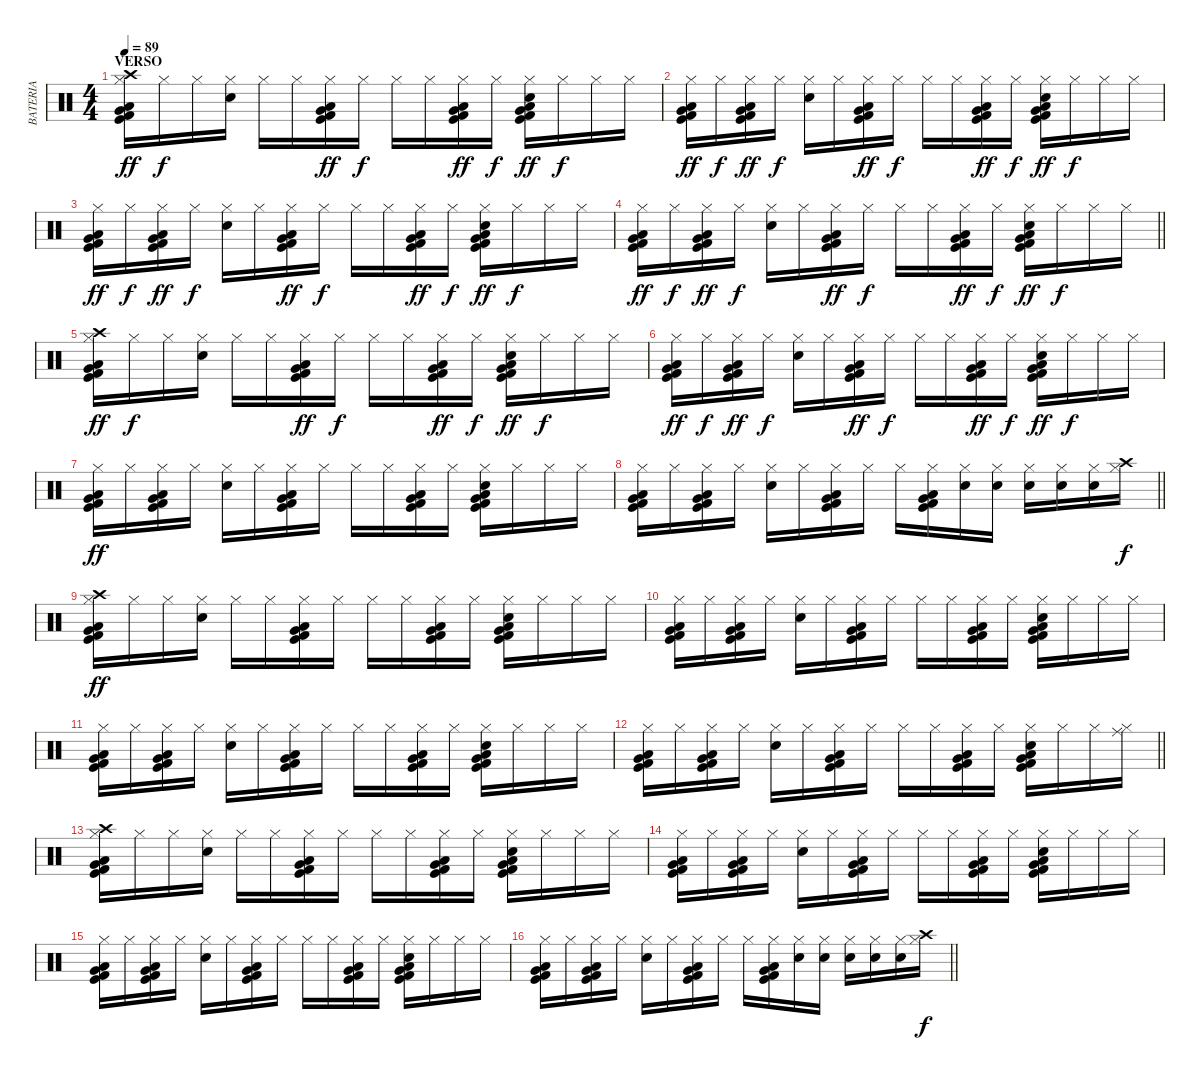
\track ("BATERIA" "BATERIA") {instrument percussion}
\staff {score}
\articulation defaults
\ts (4 4)
\section ("" "VERSO")
\tempo 89
\clef neutral
\ks c
("Hi-Hat (closed)" "Crash high (hit)" "Very Low Tom (hit)" "Kick (hit)" "Kick (hit) 2" "Low Floor Tom (hit)").16{dy ff} "Hi-Hat (closed)".16{dy f} "Hi-Hat (closed)".16 ("Hi-Hat (closed)" "Snare (hit) 2").16 "Hi-Hat (closed)".16 "Hi-Hat (closed)".16 ("Hi-Hat (closed)" "Very Low Tom (hit)" "Kick (hit)" "Kick (hit) 2" "Low Floor Tom (hit)").16{dy ff} "Hi-Hat (closed)".16{dy f} "Hi-Hat (closed)".16 "Hi-Hat (closed)".16 ("Hi-Hat (closed)" "Very Low Tom (hit)" "Kick (hit)" "Kick (hit) 2" "Low Floor Tom (hit)").16{dy ff} "Hi-Hat (closed)".16{dy f} ("Hi-Hat (closed)" "Snare (hit) 2" "Very Low Tom (hit)" "Kick (hit)" "Kick (hit) 2" "Low Floor Tom (hit)").16{dy ff} "Hi-Hat (closed)".16{dy f} "Hi-Hat (closed)".16 "Hi-Hat (closed)".16 |
("Hi-Hat (closed)" "Very Low Tom (hit)" "Kick (hit)" "Kick (hit) 2" "Low Floor Tom (hit)").16{dy ff} "Hi-Hat (closed)".16{dy f} ("Hi-Hat (closed)" "Very Low Tom (hit)" "Kick (hit)" "Kick (hit) 2" "Low Floor Tom (hit)").16{dy ff} "Hi-Hat (closed)".16{dy f} ("Hi-Hat (closed)" "Snare (hit) 2").16 "Hi-Hat (closed)".16 ("Hi-Hat (closed)" "Very Low Tom (hit)" "Kick (hit)" "Kick (hit) 2" "Low Floor Tom (hit)").16{dy ff} "Hi-Hat (closed)".16{dy f} "Hi-Hat (closed)".16 "Hi-Hat (closed)".16 ("Hi-Hat (closed)" "Very Low Tom (hit)" "Kick (hit)" "Kick (hit) 2" "Low Floor Tom (hit)").16{dy ff} "Hi-Hat (closed)".16{dy f} ("Hi-Hat (closed)" "Snare (hit) 2" "Very Low Tom (hit)" "Kick (hit)" "Kick (hit) 2" "Low Floor Tom (hit)").16{dy ff} "Hi-Hat (closed)".16{dy f} "Hi-Hat (closed)".16 "Hi-Hat (closed)".16 |
("Hi-Hat (closed)" "Very Low Tom (hit)" "Kick (hit)" "Kick (hit) 2" "Low Floor Tom (hit)").16{dy ff} "Hi-Hat (closed)".16{dy f} ("Hi-Hat (closed)" "Very Low Tom (hit)" "Kick (hit)" "Kick (hit) 2" "Low Floor Tom (hit)").16{dy ff} "Hi-Hat (closed)".16{dy f} ("Hi-Hat (closed)" "Snare (hit) 2").16 "Hi-Hat (closed)".16 ("Hi-Hat (closed)" "Very Low Tom (hit)" "Kick (hit)" "Kick (hit) 2" "Low Floor Tom (hit)").16{dy ff} "Hi-Hat (closed)".16{dy f} "Hi-Hat (closed)".16 "Hi-Hat (closed)".16 ("Hi-Hat (closed)" "Very Low Tom (hit)" "Kick (hit)" "Kick (hit) 2" "Low Floor Tom (hit)").16{dy ff} "Hi-Hat (closed)".16{dy f} ("Hi-Hat (closed)" "Snare (hit) 2" "Very Low Tom (hit)" "Kick (hit)" "Kick (hit) 2" "Low Floor Tom (hit)").16{dy ff} "Hi-Hat (closed)".16{dy f} "Hi-Hat (closed)".16 "Hi-Hat (closed)".16 |
\barLineRight lightlight
("Hi-Hat (closed)" "Very Low Tom (hit)" "Kick (hit)" "Kick (hit) 2" "Low Floor Tom (hit)").16{dy ff} "Hi-Hat (closed)".16{dy f} ("Hi-Hat (closed)" "Very Low Tom (hit)" "Kick (hit)" "Kick (hit) 2" "Low Floor Tom (hit)").16{dy ff} "Hi-Hat (closed)".16{dy f} ("Hi-Hat (closed)" "Snare (hit) 2").16 "Hi-Hat (closed)".16 ("Hi-Hat (closed)" "Very Low Tom (hit)" "Kick (hit)" "Kick (hit) 2" "Low Floor Tom (hit)").16{dy ff} "Hi-Hat (closed)".16{dy f} "Hi-Hat (closed)".16 "Hi-Hat (closed)".16 ("Hi-Hat (closed)" "Very Low Tom (hit)" "Kick (hit)" "Kick (hit) 2" "Low Floor Tom (hit)").16{dy ff} "Hi-Hat (closed)".16{dy f} ("Hi-Hat (closed)" "Snare (hit) 2" "Very Low Tom (hit)" "Kick (hit)" "Kick (hit) 2" "Low Floor Tom (hit)").16{dy ff} "Hi-Hat (closed)".16{dy f} "Hi-Hat (closed)".16 "Hi-Hat (closed)".16 |
("Hi-Hat (closed)" "Crash high (hit)" "Very Low Tom (hit)" "Kick (hit)" "Kick (hit) 2" "Low Floor Tom (hit)").16{dy ff} "Hi-Hat (closed)".16{dy f} "Hi-Hat (closed)".16 ("Hi-Hat (closed)" "Snare (hit) 2").16 "Hi-Hat (closed)".16 "Hi-Hat (closed)".16 ("Hi-Hat (closed)" "Very Low Tom (hit)" "Kick (hit)" "Kick (hit) 2" "Low Floor Tom (hit)").16{dy ff} "Hi-Hat (closed)".16{dy f} "Hi-Hat (closed)".16 "Hi-Hat (closed)".16 ("Hi-Hat (closed)" "Very Low Tom (hit)" "Kick (hit)" "Kick (hit) 2" "Low Floor Tom (hit)").16{dy ff} "Hi-Hat (closed)".16{dy f} ("Hi-Hat (closed)" "Snare (hit) 2" "Very Low Tom (hit)" "Kick (hit)" "Kick (hit) 2" "Low Floor Tom (hit)").16{dy ff} "Hi-Hat (closed)".16{dy f} "Hi-Hat (closed)".16 "Hi-Hat (closed)".16 |
("Hi-Hat (closed)" "Very Low Tom (hit)" "Kick (hit)" "Kick (hit) 2" "Low Floor Tom (hit)").16{dy ff} "Hi-Hat (closed)".16{dy f} ("Hi-Hat (closed)" "Very Low Tom (hit)" "Kick (hit)" "Kick (hit) 2" "Low Floor Tom (hit)").16{dy ff} "Hi-Hat (closed)".16{dy f} ("Hi-Hat (closed)" "Snare (hit) 2").16 "Hi-Hat (closed)".16 ("Hi-Hat (closed)" "Very Low Tom (hit)" "Kick (hit)" "Kick (hit) 2" "Low Floor Tom (hit)").16{dy ff} "Hi-Hat (closed)".16{dy f} "Hi-Hat (closed)".16 "Hi-Hat (closed)".16 ("Hi-Hat (closed)" "Very Low Tom (hit)" "Kick (hit)" "Kick (hit) 2" "Low Floor Tom (hit)").16{dy ff} "Hi-Hat (closed)".16{dy f} ("Hi-Hat (closed)" "Snare (hit) 2" "Very Low Tom (hit)" "Kick (hit)" "Kick (hit) 2" "Low Floor Tom (hit)").16{dy ff} "Hi-Hat (closed)".16{dy f} "Hi-Hat (closed)".16 "Hi-Hat (closed)".16 |
("Hi-Hat (closed)" "Very Low Tom (hit)" "Kick (hit)" "Kick (hit) 2" "Low Floor Tom (hit)").16{dy ff} "Hi-Hat (closed)".16 ("Hi-Hat (closed)" "Very Low Tom (hit)" "Kick (hit)" "Kick (hit) 2" "Low Floor Tom (hit)").16 "Hi-Hat (closed)".16 ("Hi-Hat (closed)" "Snare (hit) 2").16 "Hi-Hat (closed)".16 ("Hi-Hat (closed)" "Very Low Tom (hit)" "Kick (hit)" "Kick (hit) 2" "Low Floor Tom (hit)").16 "Hi-Hat (closed)".16 "Hi-Hat (closed)".16 "Hi-Hat (closed)".16 ("Hi-Hat (closed)" "Very Low Tom (hit)" "Kick (hit)" "Kick (hit) 2" "Low Floor Tom (hit)").16 "Hi-Hat (closed)".16 ("Hi-Hat (closed)" "Snare (hit) 2" "Very Low Tom (hit)" "Kick (hit)" "Kick (hit) 2" "Low Floor Tom (hit)").16 "Hi-Hat (closed)".16 "Hi-Hat (closed)".16 "Hi-Hat (closed)".16 |
\barLineRight lightlight
("Hi-Hat (closed)" "Very Low Tom (hit)" "Kick (hit)" "Kick (hit) 2" "Low Floor Tom (hit)").16 "Hi-Hat (closed)".16 ("Hi-Hat (closed)" "Very Low Tom (hit)" "Kick (hit)" "Kick (hit) 2" "Low Floor Tom (hit)").16 "Hi-Hat (closed)".16 ("Hi-Hat (closed)" "Snare (hit) 2").16 "Hi-Hat (closed)".16 ("Hi-Hat (closed)" "Very Low Tom (hit)" "Kick (hit)" "Kick (hit) 2" "Low Floor Tom (hit)").16 "Hi-Hat (closed)".16 "Hi-Hat (closed)".16 ("Hi-Hat (closed)" "Very Low Tom (hit)" "Kick (hit)" "Kick (hit) 2" "Low Floor Tom (hit)").16 ("Hi-Hat (closed)" "Snare (hit) 2").16 ("Hi-Hat (closed)" "Snare (hit) 2").16 ("Hi-Hat (closed)" "Snare (hit) 2").16 ("Hi-Hat (closed)" "Snare (hit) 2").16 ("Hi-Hat (closed)" "Snare (hit) 2").16 ("Hi-Hat (closed)" "Crash high (hit)").16{dy f} |
\section ("" "")
("Hi-Hat (closed)" "Crash high (hit)" "Very Low Tom (hit)" "Kick (hit)" "Kick (hit) 2" "Low Floor Tom (hit)").16{dy ff} "Hi-Hat (closed)".16 "Hi-Hat (closed)".16 ("Hi-Hat (closed)" "Snare (hit) 2").16 "Hi-Hat (closed)".16 "Hi-Hat (closed)".16 ("Hi-Hat (closed)" "Very Low Tom (hit)" "Kick (hit)" "Kick (hit) 2" "Low Floor Tom (hit)").16 "Hi-Hat (closed)".16 "Hi-Hat (closed)".16 "Hi-Hat (closed)".16 ("Hi-Hat (closed)" "Very Low Tom (hit)" "Kick (hit)" "Kick (hit) 2" "Low Floor Tom (hit)").16 "Hi-Hat (closed)".16 ("Hi-Hat (closed)" "Snare (hit) 2" "Very Low Tom (hit)" "Kick (hit)" "Kick (hit) 2" "Low Floor Tom (hit)").16 "Hi-Hat (closed)".16 "Hi-Hat (closed)".16 "Hi-Hat (closed)".16 |
("Hi-Hat (closed)" "Very Low Tom (hit)" "Kick (hit)" "Kick (hit) 2" "Low Floor Tom (hit)").16 "Hi-Hat (closed)".16 ("Hi-Hat (closed)" "Very Low Tom (hit)" "Kick (hit)" "Kick (hit) 2" "Low Floor Tom (hit)").16 "Hi-Hat (closed)".16 ("Hi-Hat (closed)" "Snare (hit) 2").16 "Hi-Hat (closed)".16 ("Hi-Hat (closed)" "Very Low Tom (hit)" "Kick (hit)" "Kick (hit) 2" "Low Floor Tom (hit)").16 "Hi-Hat (closed)".16 "Hi-Hat (closed)".16 "Hi-Hat (closed)".16 ("Hi-Hat (closed)" "Very Low Tom (hit)" "Kick (hit)" "Kick (hit) 2" "Low Floor Tom (hit)").16 "Hi-Hat (closed)".16 ("Hi-Hat (closed)" "Snare (hit) 2" "Very Low Tom (hit)" "Kick (hit)" "Kick (hit) 2" "Low Floor Tom (hit)").16 "Hi-Hat (closed)".16 "Hi-Hat (closed)".16 "Hi-Hat (closed)".16 |
("Hi-Hat (closed)" "Very Low Tom (hit)" "Kick (hit)" "Kick (hit) 2" "Low Floor Tom (hit)").16 "Hi-Hat (closed)".16 ("Hi-Hat (closed)" "Very Low Tom (hit)" "Kick (hit)" "Kick (hit) 2" "Low Floor Tom (hit)").16 "Hi-Hat (closed)".16 ("Hi-Hat (closed)" "Snare (hit) 2").16 "Hi-Hat (closed)".16 ("Hi-Hat (closed)" "Very Low Tom (hit)" "Kick (hit)" "Kick (hit) 2" "Low Floor Tom (hit)").16 "Hi-Hat (closed)".16 "Hi-Hat (closed)".16 "Hi-Hat (closed)".16 ("Hi-Hat (closed)" "Very Low Tom (hit)" "Kick (hit)" "Kick (hit) 2" "Low Floor Tom (hit)").16 "Hi-Hat (closed)".16 ("Hi-Hat (closed)" "Snare (hit) 2" "Very Low Tom (hit)" "Kick (hit)" "Kick (hit) 2" "Low Floor Tom (hit)").16 "Hi-Hat (closed)".16 "Hi-Hat (closed)".16 "Hi-Hat (closed)".16 |
\barLineRight lightlight
("Hi-Hat (closed)" "Very Low Tom (hit)" "Kick (hit)" "Kick (hit) 2" "Low Floor Tom (hit)").16 "Hi-Hat (closed)".16 ("Hi-Hat (closed)" "Very Low Tom (hit)" "Kick (hit)" "Kick (hit) 2" "Low Floor Tom (hit)").16 "Hi-Hat (closed)".16 ("Hi-Hat (closed)" "Snare (hit) 2").16 "Hi-Hat (closed)".16 ("Hi-Hat (closed)" "Very Low Tom (hit)" "Kick (hit)" "Kick (hit) 2" "Low Floor Tom (hit)").16 "Hi-Hat (closed)".16 "Hi-Hat (closed)".16 "Hi-Hat (closed)".16 ("Hi-Hat (closed)" "Very Low Tom (hit)" "Kick (hit)" "Kick (hit) 2" "Low Floor Tom (hit)").16 "Hi-Hat (closed)".16 ("Hi-Hat (closed)" "Snare (hit) 2" "Very Low Tom (hit)" "Kick (hit)" "Kick (hit) 2" "Low Floor Tom (hit)").16 "Hi-Hat (closed)".16 "Hi-Hat (closed)".16 ("Hi-Hat (closed)" "Ride (middle)").16 |
("Hi-Hat (closed)" "Crash high (hit)" "Very Low Tom (hit)" "Kick (hit)" "Kick (hit) 2" "Low Floor Tom (hit)").16 "Hi-Hat (closed)".16 "Hi-Hat (closed)".16 ("Hi-Hat (closed)" "Snare (hit) 2").16 "Hi-Hat (closed)".16 "Hi-Hat (closed)".16 ("Hi-Hat (closed)" "Very Low Tom (hit)" "Kick (hit)" "Kick (hit) 2" "Low Floor Tom (hit)").16 "Hi-Hat (closed)".16 "Hi-Hat (closed)".16 "Hi-Hat (closed)".16 ("Hi-Hat (closed)" "Very Low Tom (hit)" "Kick (hit)" "Kick (hit) 2" "Low Floor Tom (hit)").16 "Hi-Hat (closed)".16 ("Hi-Hat (closed)" "Snare (hit) 2" "Very Low Tom (hit)" "Kick (hit)" "Kick (hit) 2" "Low Floor Tom (hit)").16 "Hi-Hat (closed)".16 "Hi-Hat (closed)".16 "Hi-Hat (closed)".16 |
("Hi-Hat (closed)" "Very Low Tom (hit)" "Kick (hit)" "Kick (hit) 2" "Low Floor Tom (hit)").16 "Hi-Hat (closed)".16 ("Hi-Hat (closed)" "Very Low Tom (hit)" "Kick (hit)" "Kick (hit) 2" "Low Floor Tom (hit)").16 "Hi-Hat (closed)".16 ("Hi-Hat (closed)" "Snare (hit) 2").16 "Hi-Hat (closed)".16 ("Hi-Hat (closed)" "Very Low Tom (hit)" "Kick (hit)" "Kick (hit) 2" "Low Floor Tom (hit)").16 "Hi-Hat (closed)".16 "Hi-Hat (closed)".16 "Hi-Hat (closed)".16 ("Hi-Hat (closed)" "Very Low Tom (hit)" "Kick (hit)" "Kick (hit) 2" "Low Floor Tom (hit)").16 "Hi-Hat (closed)".16 ("Hi-Hat (closed)" "Snare (hit) 2" "Very Low Tom (hit)" "Kick (hit)" "Kick (hit) 2" "Low Floor Tom (hit)").16 "Hi-Hat (closed)".16 "Hi-Hat (closed)".16 "Hi-Hat (closed)".16 |
("Hi-Hat (closed)" "Very Low Tom (hit)" "Kick (hit)" "Kick (hit) 2" "Low Floor Tom (hit)").16 "Hi-Hat (closed)".16 ("Hi-Hat (closed)" "Very Low Tom (hit)" "Kick (hit)" "Kick (hit) 2" "Low Floor Tom (hit)").16 "Hi-Hat (closed)".16 ("Hi-Hat (closed)" "Snare (hit) 2").16 "Hi-Hat (closed)".16 ("Hi-Hat (closed)" "Very Low Tom (hit)" "Kick (hit)" "Kick (hit) 2" "Low Floor Tom (hit)").16 "Hi-Hat (closed)".16 "Hi-Hat (closed)".16 "Hi-Hat (closed)".16 ("Hi-Hat (closed)" "Very Low Tom (hit)" "Kick (hit)" "Kick (hit) 2" "Low Floor Tom (hit)").16 "Hi-Hat (closed)".16 ("Hi-Hat (closed)" "Snare (hit) 2" "Very Low Tom (hit)" "Kick (hit)" "Kick (hit) 2" "Low Floor Tom (hit)").16 "Hi-Hat (closed)".16 "Hi-Hat (closed)".16 "Hi-Hat (closed)".16 |
\barLineRight lightlight
("Hi-Hat (closed)" "Very Low Tom (hit)" "Kick (hit)" "Kick (hit) 2" "Low Floor Tom (hit)").16 "Hi-Hat (closed)".16 ("Hi-Hat (closed)" "Very Low Tom (hit)" "Kick (hit)" "Kick (hit) 2" "Low Floor Tom (hit)").16 "Hi-Hat (closed)".16 ("Hi-Hat (closed)" "Snare (hit) 2").16 "Hi-Hat (closed)".16 ("Hi-Hat (closed)" "Very Low Tom (hit)" "Kick (hit)" "Kick (hit) 2" "Low Floor Tom (hit)").16 "Hi-Hat (closed)".16 "Hi-Hat (closed)".16 ("Hi-Hat (closed)" "Very Low Tom (hit)" "Kick (hit)" "Kick (hit) 2" "Low Floor Tom (hit)").16 ("Hi-Hat (closed)" "Snare (hit) 2").16 ("Hi-Hat (closed)" "Snare (hit) 2").16 ("Hi-Hat (closed)" "Snare (hit) 2").16 ("Hi-Hat (closed)" "Snare (hit) 2").16 ("Hi-Hat (closed)" "Snare (hit) 2").16 ("Hi-Hat (closed)" "Crash high (hit)").16{dy f}
